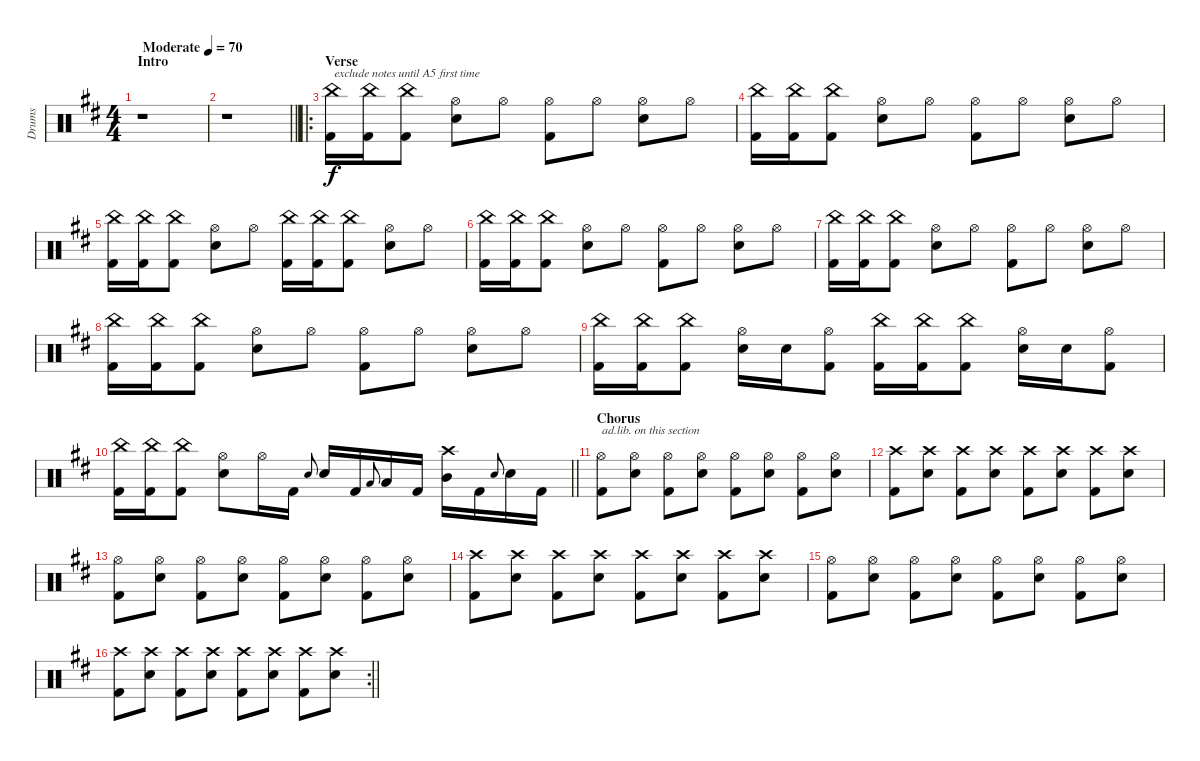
\track ("Drums" "Drums") {instrument percussion}
\staff {score}
\articulation defaults
\ts (4 4)
\section ("" "Intro")
\tempo (70 "Moderate")
\clef neutral
\ks bminor
r.1{dy f volume 0} |
\barLineRight lightlight
r.1 |
\ro
\section ("" "Verse")
("Kick (hit) 2" "China (hit)").16{txt "exclude notes until A5 first time"} ("Kick (hit) 2" "China (hit)").16 ("Kick (hit) 2" "China (hit)").8 ("Electric Snare (hit)" "Hi-Hat (open)").8 "Hi-Hat (open)".8 ("Hi-Hat (open)" "Kick (hit) 2").8 "Hi-Hat (open)".8 ("Hi-Hat (open)" "Electric Snare (hit)").8 "Hi-Hat (open)".8 |
("Kick (hit) 2" "China (hit)").16 ("Kick (hit) 2" "China (hit)").16 ("Kick (hit) 2" "China (hit)").8 ("Snare (hit) 2" "Hi-Hat (open)").8 "Hi-Hat (open)".8 ("Hi-Hat (open)" "Kick (hit) 2").8 "Hi-Hat (open)".8 ("Hi-Hat (open)" "Electric Snare (hit)").8 "Hi-Hat (open)".8 |
("China (hit)" "Kick (hit) 2").16{volume 16} ("China (hit)" "Kick (hit) 2").16 ("China (hit)" "Kick (hit) 2").8 ("Hi-Hat (open)" "Electric Snare (hit)").8 "Hi-Hat (open)".8 ("China (hit)" "Kick (hit) 2").16 ("China (hit)" "Kick (hit) 2").16 ("China (hit)" "Kick (hit) 2").8 ("Hi-Hat (open)" "Electric Snare (hit)").8 "Hi-Hat (open)".8 |
("Kick (hit) 2" "China (hit)").16 ("Kick (hit) 2" "China (hit)").16 ("Kick (hit) 2" "China (hit)").8 ("Electric Snare (hit)" "Hi-Hat (open)").8 "Hi-Hat (open)".8 ("Hi-Hat (open)" "Kick (hit) 2").8 "Hi-Hat (open)".8 ("Hi-Hat (open)" "Electric Snare (hit)").8 "Hi-Hat (open)".8 |
("Kick (hit) 2" "China (hit)").16 ("Kick (hit) 2" "China (hit)").16 ("Kick (hit) 2" "China (hit)").8 ("Electric Snare (hit)" "Hi-Hat (open)").8 "Hi-Hat (open)".8 ("Hi-Hat (open)" "Kick (hit) 2").8 "Hi-Hat (open)".8 ("Hi-Hat (open)" "Electric Snare (hit)").8 "Hi-Hat (open)".8 |
("Kick (hit) 2" "China (hit)").16 ("Kick (hit) 2" "China (hit)").16 ("Kick (hit) 2" "China (hit)").8 ("Snare (hit) 2" "Hi-Hat (open)").8 "Hi-Hat (open)".8 ("Hi-Hat (open)" "Kick (hit) 2").8 "Hi-Hat (open)".8 ("Hi-Hat (open)" "Electric Snare (hit)").8 "Hi-Hat (open)".8 |
("China (hit)" "Kick (hit) 2").16 ("China (hit)" "Kick (hit) 2").16 ("China (hit)" "Kick (hit) 2").8 ("Hi-Hat (open)" "Electric Snare (hit)").16 "Electric Snare (hit)".16 ("Hi-Hat (open)" "Kick (hit) 2").8 ("China (hit)" "Kick (hit) 2").16 ("China (hit)" "Kick (hit) 2").16 ("China (hit)" "Kick (hit) 2").8 ("Hi-Hat (open)" "Electric Snare (hit)").16 "Electric Snare (hit)".16 ("Hi-Hat (open)" "Kick (hit) 2").8 |
\barLineRight lightlight
("Kick (hit) 2" "China (hit)").16 ("Kick (hit) 2" "China (hit)").16 ("Kick (hit) 2" "China (hit)").8 ("Hi-Hat (open)" "Electric Snare (hit)").8 "Hi-Hat (open)".16 "Kick (hit) 2".16 "Snare (hit) 2".8{gr onbeat} "Electric Snare (hit)".16 "Kick (hit) 2".16 "Low Tom (hit)".8{gr onbeat} "Low Tom (hit)".16 "Kick (hit) 2".16 ("Crash high (hit)" "Mid Tom (hit)").16 "Kick (hit) 2".16 "Snare (hit) 2".8{gr onbeat} "Electric Snare (hit)".16 "Kick (hit) 2".16 |
\section ("" "Chorus")
("Hi-Hat (open)" "Kick (hit) 2").8{txt "ad.lib. on this section"} ("Hi-Hat (open)" "Electric Snare (hit)").8 ("Hi-Hat (open)" "Kick (hit) 2").8 ("Hi-Hat (open)" "Electric Snare (hit)").8 ("Hi-Hat (open)" "Kick (hit) 2").8 ("Hi-Hat (open)" "Electric Snare (hit)").8 ("Hi-Hat (open)" "Kick (hit) 2").8 ("Hi-Hat (open)" "Electric Snare (hit)").8 |
("Crash high (hit)" "Kick (hit) 2").8 ("Crash high (hit)" "Electric Snare (hit)").8 ("Crash high (hit)" "Kick (hit) 2").8 ("Crash high (hit)" "Electric Snare (hit)").8 ("Crash high (hit)" "Kick (hit) 2").8 ("Crash high (hit)" "Electric Snare (hit)").8 ("Crash high (hit)" "Kick (hit) 2").8 ("Crash high (hit)" "Electric Snare (hit)").8 |
("Hi-Hat (open)" "Kick (hit) 2").8 ("Hi-Hat (open)" "Electric Snare (hit)").8 ("Hi-Hat (open)" "Kick (hit) 2").8 ("Hi-Hat (open)" "Electric Snare (hit)").8 ("Hi-Hat (open)" "Kick (hit) 2").8 ("Hi-Hat (open)" "Electric Snare (hit)").8 ("Hi-Hat (open)" "Kick (hit) 2").8 ("Hi-Hat (open)" "Electric Snare (hit)").8 |
("Crash high (hit)" "Kick (hit) 2").8 ("Crash high (hit)" "Electric Snare (hit)").8 ("Crash high (hit)" "Kick (hit) 2").8 ("Crash high (hit)" "Electric Snare (hit)").8 ("Crash high (hit)" "Kick (hit) 2").8 ("Crash high (hit)" "Electric Snare (hit)").8 ("Crash high (hit)" "Kick (hit) 2").8 ("Crash high (hit)" "Electric Snare (hit)").8 |
("Hi-Hat (open)" "Kick (hit) 2").8 ("Hi-Hat (open)" "Electric Snare (hit)").8 ("Hi-Hat (open)" "Kick (hit) 2").8 ("Hi-Hat (open)" "Electric Snare (hit)").8 ("Hi-Hat (open)" "Kick (hit) 2").8 ("Hi-Hat (open)" "Electric Snare (hit)").8 ("Hi-Hat (open)" "Kick (hit) 2").8 ("Hi-Hat (open)" "Electric Snare (hit)").8 |
\rc 2
\barLineRight lightlight
("Crash high (hit)" "Kick (hit) 2").8 ("Crash high (hit)" "Electric Snare (hit)").8 ("Crash high (hit)" "Kick (hit) 2").8 ("Crash high (hit)" "Electric Snare (hit)").8 ("Crash high (hit)" "Kick (hit) 2").8 ("Crash high (hit)" "Electric Snare (hit)").8 ("Crash high (hit)" "Kick (hit) 2").8 ("Crash high (hit)" "Electric Snare (hit)").8
